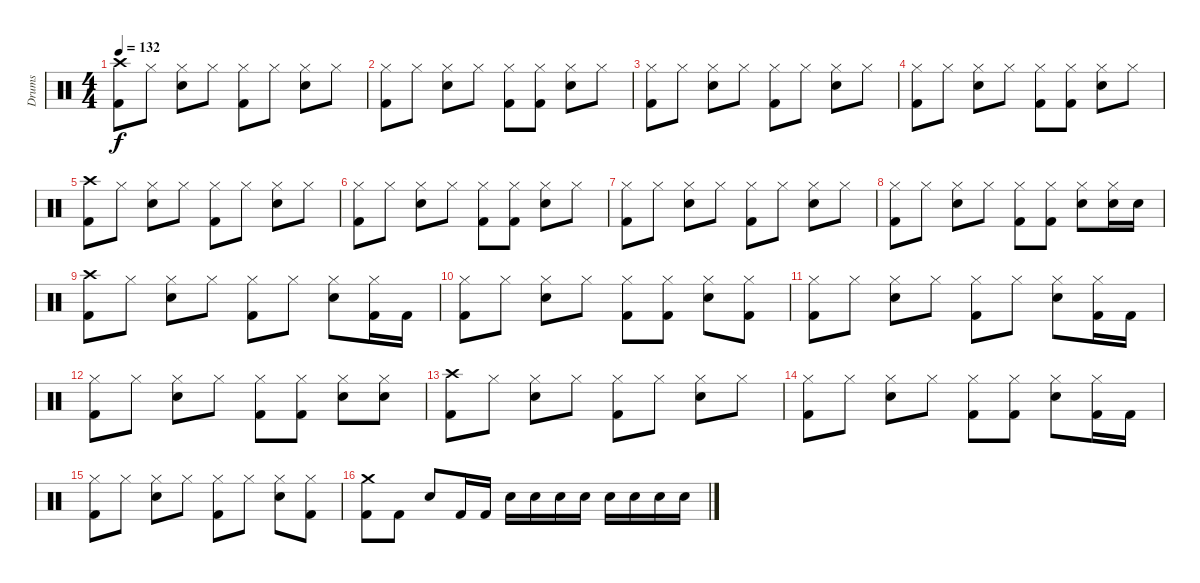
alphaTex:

\track ("Drums" "Drums") {instrument percussion}
\staff {score}
\articulation defaults
\ts (4 4)
\tempo 132
\clef neutral
\ks c
("Crash high (hit)" "Kick (hit) 2").8{dy f} "Hi-Hat (closed)".8 ("Hi-Hat (closed)" "Snare (hit) 2").8 "Hi-Hat (closed)".8 ("Hi-Hat (closed)" "Kick (hit) 2").8 "Hi-Hat (closed)".8 ("Hi-Hat (closed)" "Snare (hit) 2").8 "Hi-Hat (closed)".8 |
("Hi-Hat (closed)" "Kick (hit) 2").8 "Hi-Hat (closed)".8 ("Hi-Hat (closed)" "Snare (hit) 2").8 "Hi-Hat (closed)".8 ("Hi-Hat (closed)" "Kick (hit) 2").8 ("Hi-Hat (closed)" "Kick (hit) 2").8 ("Hi-Hat (closed)" "Snare (hit) 2").8 "Hi-Hat (closed)".8 |
("Hi-Hat (closed)" "Kick (hit) 2").8 "Hi-Hat (closed)".8 ("Hi-Hat (closed)" "Snare (hit) 2").8 "Hi-Hat (closed)".8 ("Hi-Hat (closed)" "Kick (hit) 2").8 "Hi-Hat (closed)".8 ("Hi-Hat (closed)" "Snare (hit) 2").8 "Hi-Hat (closed)".8 |
("Hi-Hat (closed)" "Kick (hit) 2").8 "Hi-Hat (closed)".8 ("Hi-Hat (closed)" "Snare (hit) 2").8 "Hi-Hat (closed)".8 ("Hi-Hat (closed)" "Kick (hit) 2").8 ("Hi-Hat (closed)" "Kick (hit) 2").8 ("Hi-Hat (closed)" "Snare (hit) 2").8 "Hi-Hat (closed)".8 |
("Crash high (hit)" "Kick (hit) 2").8 "Hi-Hat (closed)".8 ("Hi-Hat (closed)" "Snare (hit) 2").8 "Hi-Hat (closed)".8 ("Hi-Hat (closed)" "Kick (hit) 2").8 "Hi-Hat (closed)".8 ("Hi-Hat (closed)" "Snare (hit) 2").8 "Hi-Hat (closed)".8 |
("Hi-Hat (closed)" "Kick (hit) 2").8 "Hi-Hat (closed)".8 ("Hi-Hat (closed)" "Snare (hit) 2").8 "Hi-Hat (closed)".8 ("Hi-Hat (closed)" "Kick (hit) 2").8 ("Hi-Hat (closed)" "Kick (hit) 2").8 ("Hi-Hat (closed)" "Snare (hit) 2").8 "Hi-Hat (closed)".8 |
("Hi-Hat (closed)" "Kick (hit) 2").8 "Hi-Hat (closed)".8 ("Hi-Hat (closed)" "Snare (hit) 2").8 "Hi-Hat (closed)".8 ("Hi-Hat (closed)" "Kick (hit) 2").8 "Hi-Hat (closed)".8 ("Hi-Hat (closed)" "Snare (hit) 2").8 "Hi-Hat (closed)".8 |
("Hi-Hat (closed)" "Kick (hit) 2").8 "Hi-Hat (closed)".8 ("Hi-Hat (closed)" "Snare (hit) 2").8 "Hi-Hat (closed)".8 ("Hi-Hat (closed)" "Kick (hit) 2").8 ("Hi-Hat (closed)" "Kick (hit) 2").8 ("Hi-Hat (closed)" "Snare (hit) 2").8 ("Hi-Hat (closed)" "Snare (hit) 2").16 "Snare (hit) 2".16 |
("Crash high (hit)" "Kick (hit) 2").8 "Hi-Hat (closed)".8 ("Hi-Hat (closed)" "Snare (hit) 2").8 "Hi-Hat (closed)".8 ("Hi-Hat (closed)" "Kick (hit) 2").8 "Hi-Hat (closed)".8 ("Hi-Hat (closed)" "Snare (hit) 2").8 ("Hi-Hat (closed)" "Kick (hit) 2").16 "Kick (hit) 2".16 |
("Hi-Hat (closed)" "Kick (hit) 2").8 "Hi-Hat (closed)".8 ("Hi-Hat (closed)" "Snare (hit) 2").8 "Hi-Hat (closed)".8 ("Hi-Hat (closed)" "Kick (hit) 2").8 ("Hi-Hat (closed)" "Kick (hit) 2").8 ("Hi-Hat (closed)" "Snare (hit) 2").8 ("Hi-Hat (closed)" "Kick (hit) 2").8 |
("Hi-Hat (closed)" "Kick (hit) 2").8 "Hi-Hat (closed)".8 ("Hi-Hat (closed)" "Snare (hit) 2").8 "Hi-Hat (closed)".8 ("Hi-Hat (closed)" "Kick (hit) 2").8 "Hi-Hat (closed)".8 ("Hi-Hat (closed)" "Snare (hit) 2").8 ("Hi-Hat (closed)" "Kick (hit) 2").16 "Kick (hit) 2".16 |
("Hi-Hat (closed)" "Kick (hit) 2").8 "Hi-Hat (closed)".8 ("Hi-Hat (closed)" "Snare (hit) 2").8 "Hi-Hat (closed)".8 ("Hi-Hat (closed)" "Kick (hit) 2").8 ("Hi-Hat (closed)" "Kick (hit) 2").8 ("Hi-Hat (closed)" "Snare (hit) 2").8 ("Hi-Hat (closed)" "Snare (hit) 2").8 |
("Crash high (hit)" "Kick (hit) 2").8 "Hi-Hat (closed)".8 ("Hi-Hat (closed)" "Snare (hit) 2").8 "Hi-Hat (closed)".8 ("Hi-Hat (closed)" "Kick (hit) 2").8 "Hi-Hat (closed)".8 ("Hi-Hat (closed)" "Snare (hit) 2").8 "Hi-Hat (closed)".8 |
("Hi-Hat (closed)" "Kick (hit) 2").8 "Hi-Hat (closed)".8 ("Hi-Hat (closed)" "Snare (hit) 2").8 "Hi-Hat (closed)".8 ("Hi-Hat (closed)" "Kick (hit) 2").8 ("Hi-Hat (closed)" "Kick (hit) 2").8 ("Hi-Hat (closed)" "Snare (hit) 2").8 ("Hi-Hat (closed)" "Kick (hit) 2").16 "Kick (hit) 2".16 |
("Hi-Hat (closed)" "Kick (hit) 2").8 "Hi-Hat (closed)".8 ("Hi-Hat (closed)" "Snare (hit) 2").8 "Hi-Hat (closed)".8 ("Hi-Hat (closed)" "Kick (hit) 2").8 "Hi-Hat (closed)".8 ("Hi-Hat (closed)" "Snare (hit) 2").8 ("Hi-Hat (closed)" "Kick (hit) 2").8 |
("Crash medium (hit)" "Kick (hit) 2").8 "Kick (hit) 2".8 "Snare (hit) 2".8 "Kick (hit) 2".16 "Kick (hit) 2".16 "Snare (hit) 2".16 "Snare (hit) 2".16 "Snare (hit) 2".16 "Snare (hit) 2".16 "Snare (hit) 2".16 "Snare (hit) 2".16 "Snare (hit) 2".16 "Snare (hit) 2".16
